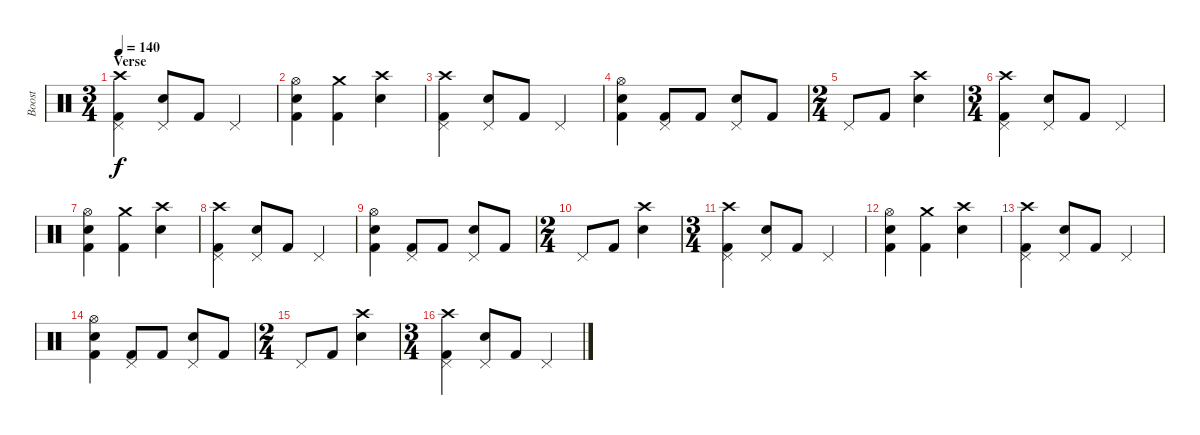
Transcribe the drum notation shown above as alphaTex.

\track ("Boost" "Boost") {instrument percussion}
\staff {score}
\articulation defaults
\ts (3 4)
\section ("" "Verse")
\tempo 140
\clef neutral
\ks c
("Crash high (hit)" "Pedal Hi-Hat (hit)" "Kick (hit) 2").4{dy f} ("Pedal Hi-Hat (hit)" "Snare (hit) 2").8 "Kick (hit) 2".8 "Pedal Hi-Hat (hit)".4 |
("Hi-Hat (open)" "Snare (hit) 2" "Kick (hit) 2").4 ("Crash medium (hit)" "Kick (hit) 2").4 ("Crash high (hit)" "Snare (hit) 2").4 |
("Crash high (hit)" "Pedal Hi-Hat (hit)" "Kick (hit) 2").4 ("Pedal Hi-Hat (hit)" "Snare (hit) 2").8 "Kick (hit) 2".8 "Pedal Hi-Hat (hit)".4 |
("Hi-Hat (open)" "Snare (hit) 2" "Kick (hit) 2").4 ("Pedal Hi-Hat (hit)" "Kick (hit) 2").8 "Kick (hit) 2".8 ("Pedal Hi-Hat (hit)" "Snare (hit) 2").8 "Kick (hit) 2".8 |
\ts (2 4)
"Pedal Hi-Hat (hit)".8 "Kick (hit) 2".8 ("Crash high (hit)" "Snare (hit) 2").4 |
\ts (3 4)
("Crash high (hit)" "Pedal Hi-Hat (hit)" "Kick (hit) 2").4 ("Pedal Hi-Hat (hit)" "Snare (hit) 2").8 "Kick (hit) 2".8 "Pedal Hi-Hat (hit)".4 |
("Hi-Hat (open)" "Snare (hit) 2" "Kick (hit) 2").4 ("Crash medium (hit)" "Kick (hit) 2").4 ("Crash high (hit)" "Snare (hit) 2").4 |
("Crash high (hit)" "Pedal Hi-Hat (hit)" "Kick (hit) 2").4 ("Pedal Hi-Hat (hit)" "Snare (hit) 2").8 "Kick (hit) 2".8 "Pedal Hi-Hat (hit)".4 |
("Hi-Hat (open)" "Snare (hit) 2" "Kick (hit) 2").4 ("Pedal Hi-Hat (hit)" "Kick (hit) 2").8 "Kick (hit) 2".8 ("Pedal Hi-Hat (hit)" "Snare (hit) 2").8 "Kick (hit) 2".8 |
\ts (2 4)
"Pedal Hi-Hat (hit)".8 "Kick (hit) 2".8 ("Crash high (hit)" "Snare (hit) 2").4 |
\ts (3 4)
("Crash high (hit)" "Pedal Hi-Hat (hit)" "Kick (hit) 2").4 ("Pedal Hi-Hat (hit)" "Snare (hit) 2").8 "Kick (hit) 2".8 "Pedal Hi-Hat (hit)".4 |
("Hi-Hat (open)" "Snare (hit) 2" "Kick (hit) 2").4 ("Crash medium (hit)" "Kick (hit) 2").4 ("Crash high (hit)" "Snare (hit) 2").4 |
("Crash high (hit)" "Pedal Hi-Hat (hit)" "Kick (hit) 2").4 ("Pedal Hi-Hat (hit)" "Snare (hit) 2").8 "Kick (hit) 2".8 "Pedal Hi-Hat (hit)".4 |
("Hi-Hat (open)" "Snare (hit) 2" "Kick (hit) 2").4 ("Pedal Hi-Hat (hit)" "Kick (hit) 2").8 "Kick (hit) 2".8 ("Pedal Hi-Hat (hit)" "Snare (hit) 2").8 "Kick (hit) 2".8 |
\ts (2 4)
"Pedal Hi-Hat (hit)".8 "Kick (hit) 2".8 ("Crash high (hit)" "Snare (hit) 2").4 |
\ts (3 4)
("Crash high (hit)" "Pedal Hi-Hat (hit)" "Kick (hit) 2").4 ("Pedal Hi-Hat (hit)" "Snare (hit) 2").8 "Kick (hit) 2".8 "Pedal Hi-Hat (hit)".4
